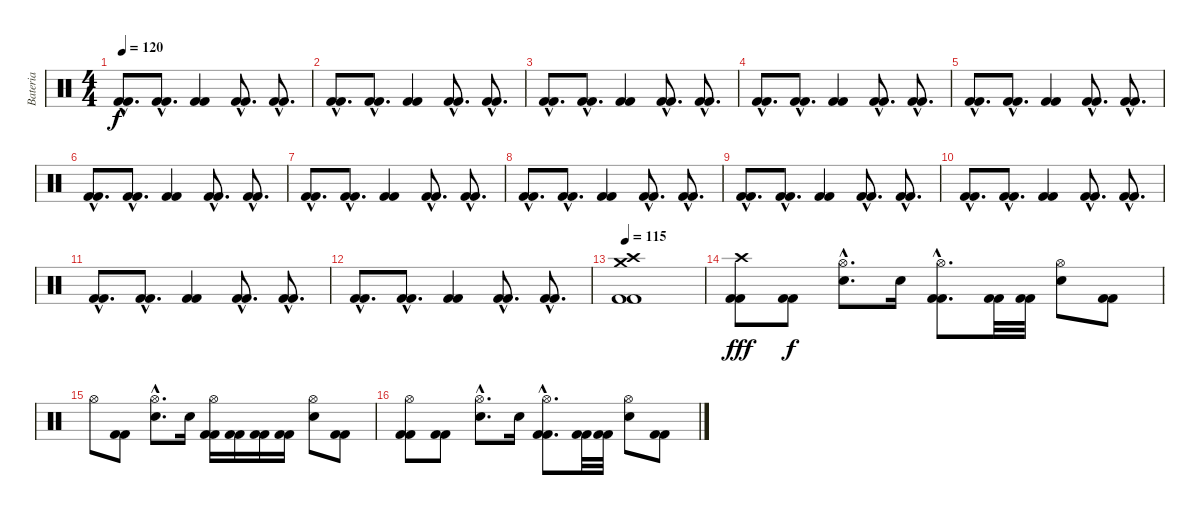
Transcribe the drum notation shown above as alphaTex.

\track ("Bateria" "Bateria") {instrument percussion}
\staff {score}
\articulation defaults
\ts (4 4)
\tempo 120
\clef neutral
\ks c
("Kick (hit) 2"{hac} "Kick (hit) 2"{hac}).8{d dy f} ("Kick (hit) 2"{hac} "Kick (hit) 2"{hac}).8{d} ("Kick (hit) 2" "Kick (hit) 2").4 ("Kick (hit) 2"{hac} "Kick (hit) 2"{hac}).8{d} ("Kick (hit) 2"{hac} "Kick (hit) 2"{hac}).8{d} |
("Kick (hit) 2"{hac} "Kick (hit) 2"{hac}).8{d} ("Kick (hit) 2"{hac} "Kick (hit) 2"{hac}).8{d} ("Kick (hit) 2" "Kick (hit) 2").4 ("Kick (hit) 2"{hac} "Kick (hit) 2"{hac}).8{d} ("Kick (hit) 2"{hac} "Kick (hit) 2"{hac}).8{d} |
("Kick (hit) 2"{hac} "Kick (hit) 2"{hac}).8{d} ("Kick (hit) 2"{hac} "Kick (hit) 2"{hac}).8{d} ("Kick (hit) 2" "Kick (hit) 2").4 ("Kick (hit) 2"{hac} "Kick (hit) 2"{hac}).8{d} ("Kick (hit) 2"{hac} "Kick (hit) 2"{hac}).8{d} |
("Kick (hit) 2"{hac} "Kick (hit) 2"{hac}).8{d} ("Kick (hit) 2"{hac} "Kick (hit) 2"{hac}).8{d} ("Kick (hit) 2" "Kick (hit) 2").4 ("Kick (hit) 2"{hac} "Kick (hit) 2"{hac}).8{d} ("Kick (hit) 2"{hac} "Kick (hit) 2"{hac}).8{d} |
("Kick (hit) 2"{hac} "Kick (hit) 2"{hac}).8{d} ("Kick (hit) 2"{hac} "Kick (hit) 2"{hac}).8{d} ("Kick (hit) 2" "Kick (hit) 2").4 ("Kick (hit) 2"{hac} "Kick (hit) 2"{hac}).8{d} ("Kick (hit) 2"{hac} "Kick (hit) 2"{hac}).8{d} |
("Kick (hit) 2"{hac} "Kick (hit) 2"{hac}).8{d} ("Kick (hit) 2"{hac} "Kick (hit) 2"{hac}).8{d} ("Kick (hit) 2" "Kick (hit) 2").4 ("Kick (hit) 2"{hac} "Kick (hit) 2"{hac}).8{d} ("Kick (hit) 2"{hac} "Kick (hit) 2"{hac}).8{d} |
("Kick (hit) 2"{hac} "Kick (hit) 2"{hac}).8{d} ("Kick (hit) 2"{hac} "Kick (hit) 2"{hac}).8{d} ("Kick (hit) 2" "Kick (hit) 2").4 ("Kick (hit) 2"{hac} "Kick (hit) 2"{hac}).8{d} ("Kick (hit) 2"{hac} "Kick (hit) 2"{hac}).8{d} |
("Kick (hit) 2"{hac} "Kick (hit) 2"{hac}).8{d} ("Kick (hit) 2"{hac} "Kick (hit) 2"{hac}).8{d} ("Kick (hit) 2" "Kick (hit) 2").4 ("Kick (hit) 2"{hac} "Kick (hit) 2"{hac}).8{d} ("Kick (hit) 2"{hac} "Kick (hit) 2"{hac}).8{d} |
("Kick (hit) 2"{hac} "Kick (hit) 2"{hac}).8{d} ("Kick (hit) 2"{hac} "Kick (hit) 2"{hac}).8{d} ("Kick (hit) 2" "Kick (hit) 2").4 ("Kick (hit) 2"{hac} "Kick (hit) 2"{hac}).8{d} ("Kick (hit) 2"{hac} "Kick (hit) 2"{hac}).8{d} |
("Kick (hit) 2"{hac} "Kick (hit) 2"{hac}).8{d} ("Kick (hit) 2"{hac} "Kick (hit) 2"{hac}).8{d} ("Kick (hit) 2" "Kick (hit) 2").4 ("Kick (hit) 2"{hac} "Kick (hit) 2"{hac}).8{d} ("Kick (hit) 2"{hac} "Kick (hit) 2"{hac}).8{d} |
("Kick (hit) 2"{hac} "Kick (hit) 2"{hac}).8{d} ("Kick (hit) 2"{hac} "Kick (hit) 2"{hac}).8{d} ("Kick (hit) 2" "Kick (hit) 2").4 ("Kick (hit) 2"{hac} "Kick (hit) 2"{hac}).8{d} ("Kick (hit) 2"{hac} "Kick (hit) 2"{hac}).8{d} |
("Kick (hit) 2"{hac} "Kick (hit) 2"{hac}).8{d} ("Kick (hit) 2"{hac} "Kick (hit) 2"{hac}).8{d} ("Kick (hit) 2" "Kick (hit) 2").4 ("Kick (hit) 2"{hac} "Kick (hit) 2"{hac}).8{d} ("Kick (hit) 2"{hac} "Kick (hit) 2"{hac}).8{d} |
\tempo 115
("Crash high (hit)" "Crash medium (hit)" "Kick (hit) 2" "Kick (hit) 2").1 |
("Crash high (hit)" "Kick (hit) 2" "Kick (hit) 2").8{dy fff} ("Kick (hit) 2" "Kick (hit) 2").8{dy f} ("Hi-Hat (open)"{hac} "Electric Snare (hit)"{hac}).8{d} "Electric Snare (hit)".16 ("Hi-Hat (open)"{hac} "Kick (hit) 2"{hac} "Kick (hit) 2"{hac}).8{d} ("Kick (hit) 2" "Kick (hit) 2").32 ("Kick (hit) 2" "Kick (hit) 2").32 ("Hi-Hat (open)" "Electric Snare (hit)").8 ("Kick (hit) 2" "Kick (hit) 2").8 |
"Hi-Hat (open)".8 ("Kick (hit) 2" "Kick (hit) 2").8 ("Hi-Hat (open)"{hac} "Electric Snare (hit)"{hac}).8{d} "Electric Snare (hit)".16 ("Hi-Hat (open)" "Kick (hit) 2" "Kick (hit) 2").16 ("Kick (hit) 2" "Kick (hit) 2").16 ("Kick (hit) 2" "Kick (hit) 2").16 ("Kick (hit) 2" "Kick (hit) 2").16 ("Hi-Hat (open)" "Electric Snare (hit)").8 ("Kick (hit) 2" "Kick (hit) 2").8 |
("Hi-Hat (open)" "Kick (hit) 2" "Kick (hit) 2").8 ("Kick (hit) 2" "Kick (hit) 2").8 ("Hi-Hat (open)"{hac} "Electric Snare (hit)"{hac}).8{d} "Electric Snare (hit)".16 ("Hi-Hat (open)"{hac} "Kick (hit) 2"{hac} "Kick (hit) 2"{hac}).8{d} ("Kick (hit) 2" "Kick (hit) 2").32 ("Kick (hit) 2" "Kick (hit) 2").32 ("Hi-Hat (open)" "Electric Snare (hit)").8 ("Kick (hit) 2" "Kick (hit) 2").8
